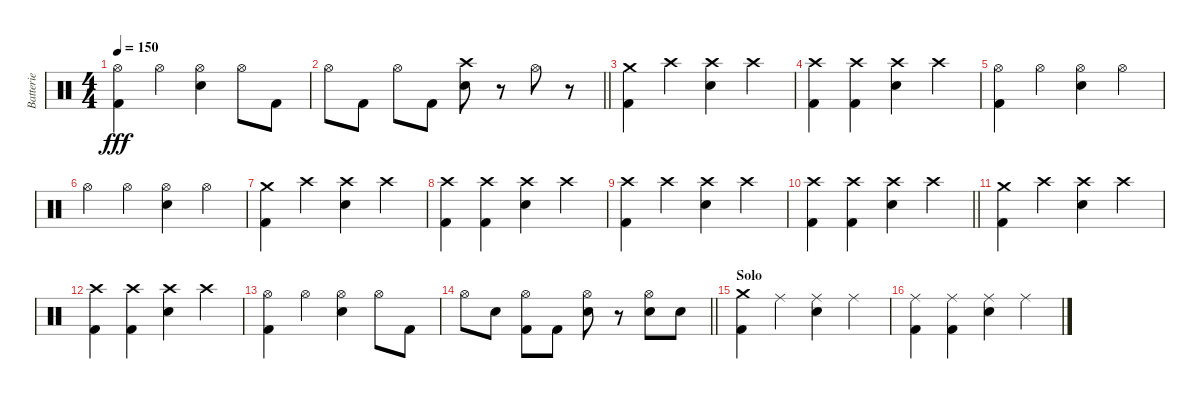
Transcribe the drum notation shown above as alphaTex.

\track ("Batterie" "Batterie") {instrument percussion}
\staff {score}
\articulation defaults
\ts (4 4)
\tempo 150
\clef neutral
\ks c
("Hi-Hat (open)" "Kick (hit) 2").4{dy fff} "Hi-Hat (open)".4 ("Hi-Hat (open)" "Electric Snare (hit)").4 "Hi-Hat (open)".8 "Kick (hit) 2".8 |
\barLineRight lightlight "Hi-Hat (open)".8 "Kick (hit) 2".8 "Hi-Hat (open)".8 "Kick (hit) 2".8
("Crash high (hit)" "Electric Snare (hit)").8 r.8 "Hi-Hat (open)".8 r.8 |
("Crash medium (hit)" "Kick (hit) 2").4 "Crash high (hit)".4 ("Crash high (hit)" "Electric Snare (hit)").4 "Crash high (hit)".4 |
("Crash high (hit)" "Kick (hit) 2").4 ("Crash high (hit)" "Kick (hit) 2").4 ("Crash high (hit)" "Electric Snare (hit)").4 "Crash high (hit)".4 |
("Hi-Hat (open)" "Kick (hit) 2").4 "Hi-Hat (open)".4 ("Hi-Hat (open)" "Electric Snare (hit)").4 "Hi-Hat (open)".4 |
"Hi-Hat (open)".4 "Hi-Hat (open)".4 ("Hi-Hat (open)" "Electric Snare (hit)").4 "Hi-Hat (open)".4 |
("Crash medium (hit)" "Kick (hit) 2").4 "Crash high (hit)".4 ("Crash high (hit)" "Electric Snare (hit)").4 "Crash high (hit)".4 |
("Crash high (hit)" "Kick (hit) 2").4 ("Crash high (hit)" "Kick (hit) 2").4 ("Crash high (hit)" "Electric Snare (hit)").4 "Crash high (hit)".4 |
("Crash high (hit)" "Kick (hit) 2").4 "Crash high (hit)".4 ("Crash high (hit)" "Electric Snare (hit)").4 "Crash high (hit)".4 |
\barLineRight lightlight
("Crash high (hit)" "Kick (hit) 2").4 ("Crash high (hit)" "Kick (hit) 2").4 ("Crash high (hit)" "Electric Snare (hit)").4 "Crash high (hit)".4 |
("Crash medium (hit)" "Kick (hit) 2").4 "Crash high (hit)".4 ("Crash high (hit)" "Electric Snare (hit)").4 "Crash high (hit)".4 |
("Crash high (hit)" "Kick (hit) 2").4 ("Crash high (hit)" "Kick (hit) 2").4 ("Crash high (hit)" "Electric Snare (hit)").4 "Crash high (hit)".4 |
("Hi-Hat (open)" "Kick (hit) 2").4 "Hi-Hat (open)".4 ("Hi-Hat (open)" "Electric Snare (hit)").4 "Hi-Hat (open)".8 "Kick (hit) 2".8 |
\barLineRight lightlight "Hi-Hat (open)".8 "Electric Snare (hit)".8
("Hi-Hat (open)" "Kick (hit) 2").8 "Kick (hit) 2".8 ("Hi-Hat (open)" "Electric Snare (hit)").8 r.8 ("Hi-Hat (open)" "Electric Snare (hit)").8 "Electric Snare (hit)".8 |
\section ("" "Solo")
("Crash medium (hit)" "Kick (hit) 2").4 "Ride (middle)".4 ("Ride (middle)" "Electric Snare (hit)").4 "Ride (middle)".4 |
("Ride (middle)" "Kick (hit) 2").4 ("Ride (middle)" "Kick (hit) 2").4 ("Ride (middle)" "Electric Snare (hit)").4 "Ride (middle)".4
